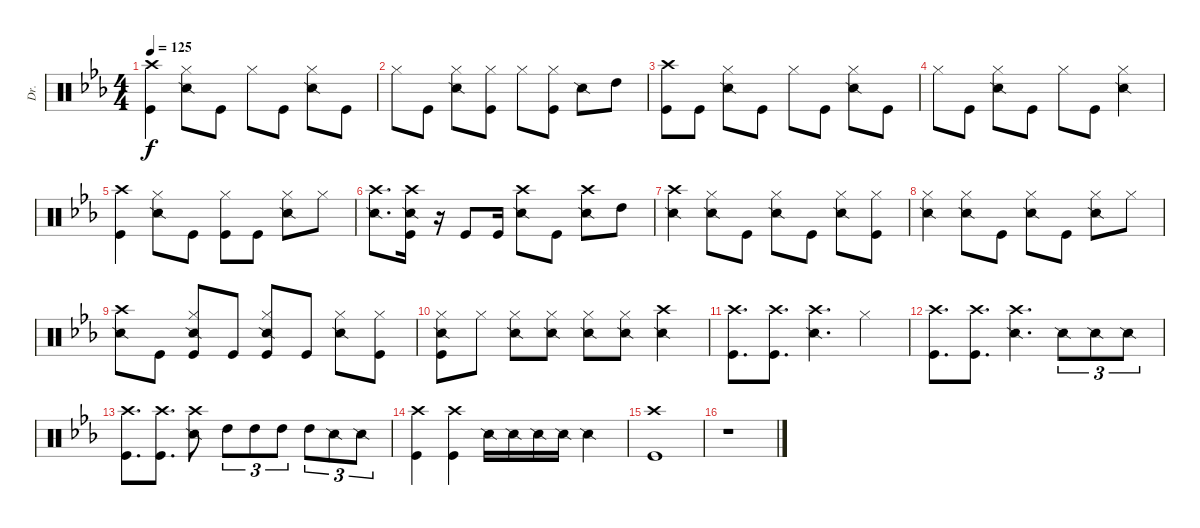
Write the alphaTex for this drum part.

\track ("Dr." "Dr.") {instrument percussion}
\staff {score}
\articulation defaults
\ts (4 4)
\tempo 125
\clef neutral
\ks eb
("Crash high (hit)" "Kick (hit)").4{dy f} ("Hi-Hat (closed)" "Snare (side stick) 2").8 "Kick (hit)".8 "Hi-Hat (closed)".8 "Kick (hit)".8 ("Hi-Hat (closed)" "Snare (side stick) 2").8 "Kick (hit)".8 |
"Hi-Hat (closed)".8 "Kick (hit)".8 ("Hi-Hat (closed)" "Snare (side stick) 2").8 ("Hi-Hat (closed)" "Kick (hit)").8 "Hi-Hat (closed)".8 ("Hi-Hat (closed)" "Kick (hit)").8 "Snare (side stick) 2".8 "High Tom (hit)".8 |
("Crash high (hit)" "Kick (hit)").8 "Kick (hit)".8 ("Hi-Hat (closed)" "Snare (side stick) 2").8 "Kick (hit)".8 "Hi-Hat (closed)".8 "Kick (hit)".8 ("Hi-Hat (closed)" "Snare (side stick) 2").8 "Kick (hit)".8 |
"Hi-Hat (closed)".8 "Kick (hit)".8 ("Hi-Hat (closed)" "Snare (side stick) 2").8 "Kick (hit)".8 "Hi-Hat (closed)".8 "Kick (hit)".8 ("Hi-Hat (closed)" "Snare (side stick) 2").4 |
("Crash high (hit)" "Kick (hit)").4 ("Hi-Hat (closed)" "Snare (side stick) 2").8 "Kick (hit)".8 ("Hi-Hat (closed)" "Kick (hit)").8 "Kick (hit)".8 ("Hi-Hat (closed)" "Snare (side stick) 2").8 "Hi-Hat (closed)".8 |
("Crash high (hit)" "Snare (side stick) 2").8{d} ("Crash high (hit)" "Snare (side stick) 2" "Kick (hit)").16 r.16 "Kick (hit)".8 "Kick (hit)".16 ("Crash high (hit)" "Snare (side stick) 2").8 "Kick (hit)".8 ("Crash high (hit)" "Snare (side stick) 2").8 "High Tom (hit)".8 |
("Crash high (hit)" "Snare (side stick) 2").4 ("Hi-Hat (closed)" "Snare (side stick) 2").8 "Kick (hit)".8 ("Hi-Hat (closed)" "Snare (side stick) 2").8 "Kick (hit)".8 ("Hi-Hat (closed)" "Snare (side stick) 2").8 ("Hi-Hat (closed)" "Kick (hit)").8 |
("Hi-Hat (closed)" "Snare (side stick) 2").4 ("Hi-Hat (closed)" "Snare (side stick) 2").8 "Kick (hit)".8 ("Hi-Hat (closed)" "Snare (side stick) 2").8 "Kick (hit)".8 ("Hi-Hat (closed)" "Snare (side stick) 2").8 "Hi-Hat (closed)".8 |
("Crash high (hit)" "Snare (side stick) 2").8 "Kick (hit)".8 ("Hi-Hat (closed)" "Snare (side stick) 2" "Kick (hit)").8 "Kick (hit)".8 ("Hi-Hat (closed)" "Snare (side stick) 2" "Kick (hit)").8 "Kick (hit)".8 ("Hi-Hat (closed)" "Snare (side stick) 2").8 ("Hi-Hat (closed)" "Kick (hit)").8 |
("Hi-Hat (closed)" "Snare (side stick) 2" "Kick (hit)").8 "Hi-Hat (closed)".8 ("Hi-Hat (closed)" "Snare (side stick) 2").8 ("Hi-Hat (closed)" "Snare (side stick) 2").8 ("Hi-Hat (closed)" "Snare (side stick) 2").8 ("Hi-Hat (closed)" "Snare (side stick) 2").8 ("Crash high (hit)" "Snare (side stick) 2").4 |
("Crash high (hit)" "Kick (hit)").8{d} ("Crash high (hit)" "Kick (hit)").8{d} ("Crash high (hit)" "Snare (side stick) 2").4{d} "Hi-Hat (closed)".4 |
("Crash high (hit)" "Kick (hit)").8{d} ("Crash high (hit)" "Kick (hit)").8{d} ("Crash high (hit)" "Snare (side stick) 2").4{d} "Snare (side stick) 2".8{tu (3 2)} "Snare (side stick) 2".8{tu (3 2)} "Snare (side stick) 2".8{tu (3 2)} |
("Crash high (hit)" "Kick (hit)").8{d} ("Crash high (hit)" "Kick (hit)").8{d} ("Crash high (hit)" "Snare (side stick) 2").8 "High Tom (hit)".8{tu (3 2)} "High Tom (hit)".8{tu (3 2)} "High Tom (hit)".8{tu (3 2)} "High Tom (hit)".8{tu (3 2)} "Snare (side stick) 2".8{tu (3 2)} "Snare (side stick) 2".8{tu (3 2)} |
("Crash high (hit)" "Kick (hit)").4 ("Crash high (hit)" "Kick (hit)").4 "Snare (side stick) 2".16 "Snare (side stick) 2".16 "Snare (side stick) 2".16 "Snare (side stick) 2".16 "Snare (side stick) 2".4 |
("Crash high (hit)" "Kick (hit)").1 |
r.1
